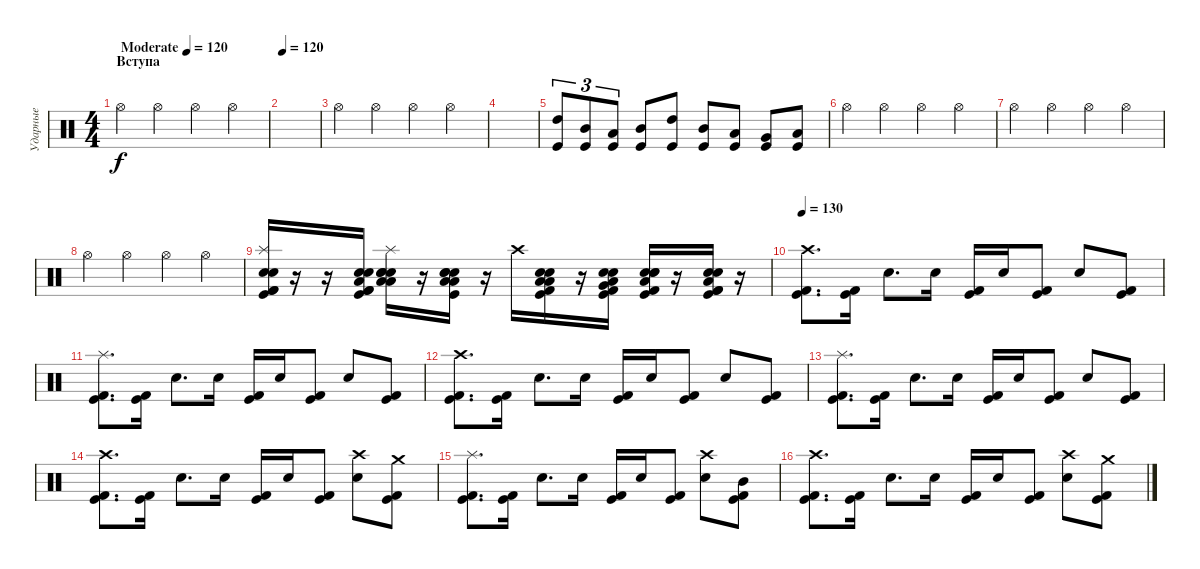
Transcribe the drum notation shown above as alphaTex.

\track ("Ударные" "Ударные") {solo instrument percussion}
\staff {score}
\articulation defaults
\ts (4 4)
\section ("" "Вступа")
\tempo (120 "Moderate")
\clef neutral
\ks c "Hi-Hat (open)".4{dy f} "Hi-Hat (open)".4 "Hi-Hat (open)".4 "Hi-Hat (open)".4
|
\tempo 120
|
"Hi-Hat (open)".4 "Hi-Hat (open)".4 "Hi-Hat (open)".4 "Hi-Hat (open)".4 |
|
("High Tom (hit)" "Kick (hit)").8{tu (3 2)} ("Mid Tom (hit)" "Kick (hit)").8{tu (3 2)} ("Low Tom (hit)" "Kick (hit)").8{tu (3 2)} ("Mid Tom (hit)" "Kick (hit)").8 ("High Tom (hit)" "Kick (hit)").8 ("Mid Tom (hit)" "Kick (hit)").8 ("Low Tom (hit)" "Kick (hit)").8 ("Very Low Tom (hit)" "Kick (hit)").8 ("Low Tom (hit)" "Kick (hit)").8 |
"Hi-Hat (open)".4 "Hi-Hat (open)".4 "Hi-Hat (open)".4 "Hi-Hat (open)".4 |
"Hi-Hat (open)".4 "Hi-Hat (open)".4 "Hi-Hat (open)".4 "Hi-Hat (open)".4 |
"Hi-Hat (open)".4 "Hi-Hat (open)".4 "Hi-Hat (open)".4 "Hi-Hat (open)".4 |
("Kick (hit) 2" "Kick (hit) 2" "Splash (hit)" "Snare (hit) 2" "Snare (hit) 2" "Kick (hit)").16 r.16 r.16 ("Low Floor Tom (hit)" "Kick (hit) 2" "Kick (hit) 2" "Snare (hit) 2" "Snare (hit) 2" "Kick (hit)").16 ("Low Floor Tom (hit)" "Low Floor Tom (hit)" "Splash (hit)" "Snare (hit) 2" "Electric Snare (hit)" "Snare (hit) 2").16 r.16 ("Low Floor Tom (hit)" "Low Floor Tom (hit)" "Snare (hit) 2" "Snare (hit) 2" "Snare (hit) 2" "Kick (hit)").16 r.16 "Crash high (hit)".16 ("Low Floor Tom (hit)" "Kick (hit) 2" "Snare (hit) 2" "Low Floor Tom (hit)" "Snare (hit) 2" "Kick (hit)").16 r.16 ("Kick (hit) 2" "Snare (hit) 2" "Snare (hit) 2" "Low Floor Tom (hit)" "Very Low Tom (hit)" "Kick (hit)").16 ("Kick (hit) 2" "Snare (hit) 2" "Snare (hit) 2" "Low Floor Tom (hit)" "Electric Snare (hit)" "Kick (hit)").16 r.16 ("Kick (hit) 2" "Kick (hit) 2" "Snare (hit) 2" "Low Floor Tom (hit)" "Electric Snare (hit)" "Kick (hit)").16 r.16 |
\tempo 130
("Crash high (hit)" "Kick (hit)" "Kick (hit) 2").8{d} ("Kick (hit)" "Kick (hit) 2").16 "Snare (hit) 2".8{d} "Snare (hit) 2".16 ("Kick (hit)" "Kick (hit) 2").16 "Snare (hit) 2".16 ("Kick (hit)" "Kick (hit) 2").8 "Snare (hit) 2".8 ("Kick (hit)" "Kick (hit) 2").8 |
("Splash (hit)" "Kick (hit)" "Kick (hit) 2").8{d} ("Kick (hit)" "Kick (hit) 2").16 "Snare (hit) 2".8{d} "Snare (hit) 2".16 ("Kick (hit)" "Kick (hit) 2").16 "Snare (hit) 2".16 ("Kick (hit)" "Kick (hit) 2").8 "Snare (hit) 2".8 ("Kick (hit)" "Kick (hit) 2").8 |
("Crash high (hit)" "Kick (hit)" "Kick (hit) 2").8{d} ("Kick (hit)" "Kick (hit) 2").16 "Snare (hit) 2".8{d} "Snare (hit) 2".16 ("Kick (hit)" "Kick (hit) 2").16 "Snare (hit) 2".16 ("Kick (hit)" "Kick (hit) 2").8 "Snare (hit) 2".8 ("Kick (hit)" "Kick (hit) 2").8 |
("Splash (hit)" "Kick (hit)" "Kick (hit) 2").8{d} ("Kick (hit)" "Kick (hit) 2").16 "Snare (hit) 2".8{d} "Snare (hit) 2".16 ("Kick (hit)" "Kick (hit) 2").16 "Snare (hit) 2".16 ("Kick (hit)" "Kick (hit) 2").8 "Snare (hit) 2".8 ("Kick (hit)" "Kick (hit) 2").8 |
("Crash high (hit)" "Kick (hit)" "Kick (hit) 2").8{d} ("Kick (hit)" "Kick (hit) 2").16 "Snare (hit) 2".8{d} "Snare (hit) 2".16 ("Kick (hit)" "Kick (hit) 2").16 "Snare (hit) 2".16 ("Kick (hit)" "Kick (hit) 2").8 ("Crash high (hit)" "Snare (hit) 2").8 ("Crash medium (hit)" "Kick (hit)" "Kick (hit) 2").8 |
("Splash (hit)" "Kick (hit)" "Kick (hit) 2").8{d} ("Kick (hit)" "Kick (hit) 2").16 "Snare (hit) 2".8{d} "Snare (hit) 2".16 ("Kick (hit)" "Kick (hit) 2").16 "Snare (hit) 2".16 ("Kick (hit)" "Kick (hit) 2").8 ("Crash high (hit)" "Snare (hit) 2").8 ("Mid Tom (hit)" "Kick (hit)" "Kick (hit) 2").8 |
("Crash high (hit)" "Kick (hit)" "Kick (hit) 2").8{d} ("Kick (hit)" "Kick (hit) 2").16 "Snare (hit) 2".8{d} "Snare (hit) 2".16 ("Kick (hit)" "Kick (hit) 2").16 "Snare (hit) 2".16 ("Kick (hit)" "Kick (hit) 2").8 ("Crash high (hit)" "Snare (hit) 2").8 ("Crash medium (hit)" "Kick (hit)" "Kick (hit) 2").8
